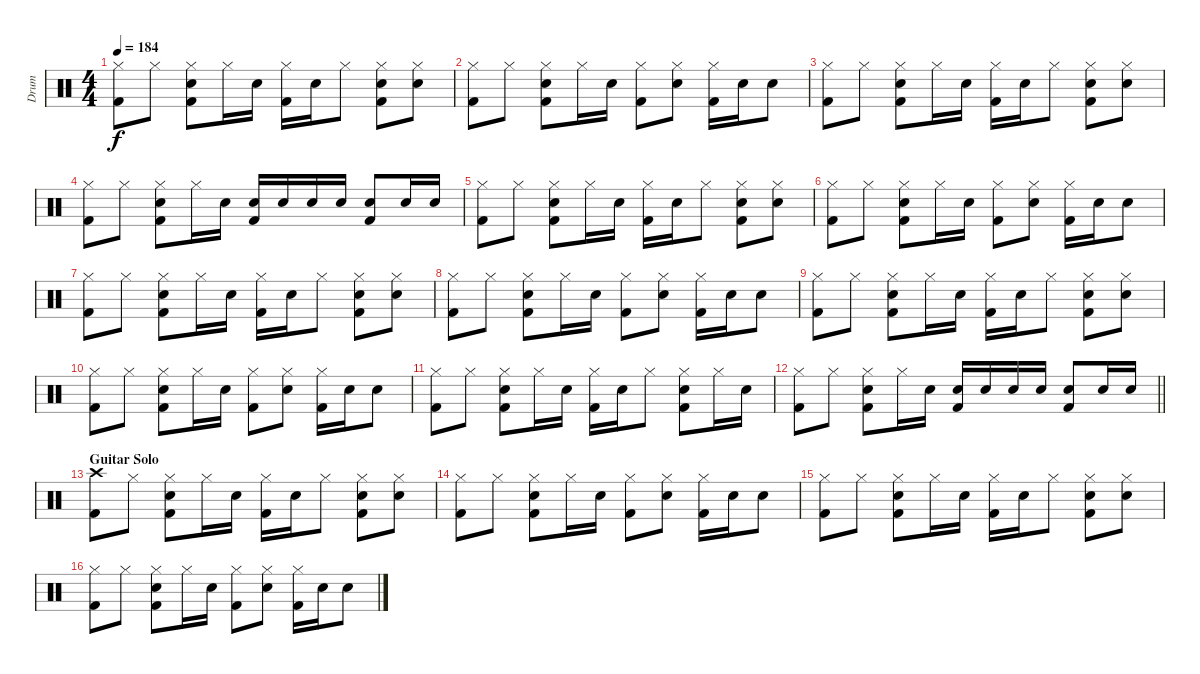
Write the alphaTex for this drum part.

\track ("Drum" "Drum") {instrument percussion}
\staff {score}
\articulation defaults
\ts (4 4)
\tempo 184
\clef neutral
\ks c
("Hi-Hat (closed)" "Kick (hit) 2").8{dy f} "Hi-Hat (closed)".8 ("Hi-Hat (closed)" "Electric Snare (hit)" "Kick (hit) 2").8 "Hi-Hat (closed)".16 "Electric Snare (hit)".16 ("Hi-Hat (closed)" "Kick (hit) 2").16 "Electric Snare (hit)".16 "Hi-Hat (closed)".8 ("Hi-Hat (closed)" "Electric Snare (hit)" "Kick (hit) 2").8 ("Hi-Hat (closed)" "Electric Snare (hit)").8 |
("Hi-Hat (closed)" "Kick (hit) 2").8 "Hi-Hat (closed)".8 ("Hi-Hat (closed)" "Electric Snare (hit)" "Kick (hit) 2").8 "Hi-Hat (closed)".16 "Electric Snare (hit)".16 ("Hi-Hat (closed)" "Kick (hit) 2").8 ("Hi-Hat (closed)" "Electric Snare (hit)").8 ("Hi-Hat (closed)" "Kick (hit) 2").16 "Electric Snare (hit)".16 "Electric Snare (hit)".8 |
("Hi-Hat (closed)" "Kick (hit) 2").8 "Hi-Hat (closed)".8 ("Hi-Hat (closed)" "Electric Snare (hit)" "Kick (hit) 2").8 "Hi-Hat (closed)".16 "Electric Snare (hit)".16 ("Hi-Hat (closed)" "Kick (hit) 2").16 "Electric Snare (hit)".16 "Hi-Hat (closed)".8 ("Hi-Hat (closed)" "Electric Snare (hit)" "Kick (hit) 2").8 ("Hi-Hat (closed)" "Electric Snare (hit)").8 |
("Hi-Hat (closed)" "Kick (hit) 2").8 "Hi-Hat (closed)".8 ("Hi-Hat (closed)" "Electric Snare (hit)" "Kick (hit) 2").8 "Hi-Hat (closed)".16 "Electric Snare (hit)".16 ("Electric Snare (hit)" "Kick (hit) 2").16 "Electric Snare (hit)".16 "Electric Snare (hit)".16 "Electric Snare (hit)".16 ("Electric Snare (hit)" "Kick (hit) 2").8 "Electric Snare (hit)".16 "Electric Snare (hit)".16 |
("Hi-Hat (closed)" "Kick (hit) 2").8 "Hi-Hat (closed)".8 ("Hi-Hat (closed)" "Electric Snare (hit)" "Kick (hit) 2").8 "Hi-Hat (closed)".16 "Electric Snare (hit)".16 ("Hi-Hat (closed)" "Kick (hit) 2").16 "Electric Snare (hit)".16 "Hi-Hat (closed)".8 ("Hi-Hat (closed)" "Electric Snare (hit)" "Kick (hit) 2").8 ("Hi-Hat (closed)" "Electric Snare (hit)").8 |
("Hi-Hat (closed)" "Kick (hit) 2").8 "Hi-Hat (closed)".8 ("Hi-Hat (closed)" "Electric Snare (hit)" "Kick (hit) 2").8 "Hi-Hat (closed)".16 "Electric Snare (hit)".16 ("Hi-Hat (closed)" "Kick (hit) 2").8 ("Hi-Hat (closed)" "Electric Snare (hit)").8 ("Hi-Hat (closed)" "Kick (hit) 2").16 "Electric Snare (hit)".16 "Electric Snare (hit)".8 |
("Hi-Hat (closed)" "Kick (hit) 2").8 "Hi-Hat (closed)".8 ("Hi-Hat (closed)" "Electric Snare (hit)" "Kick (hit) 2").8 "Hi-Hat (closed)".16 "Electric Snare (hit)".16 ("Hi-Hat (closed)" "Kick (hit) 2").16 "Electric Snare (hit)".16 "Hi-Hat (closed)".8 ("Hi-Hat (closed)" "Electric Snare (hit)" "Kick (hit) 2").8 ("Hi-Hat (closed)" "Electric Snare (hit)").8 |
("Hi-Hat (closed)" "Kick (hit) 2").8 "Hi-Hat (closed)".8 ("Hi-Hat (closed)" "Electric Snare (hit)" "Kick (hit) 2").8 "Hi-Hat (closed)".16 "Electric Snare (hit)".16 ("Hi-Hat (closed)" "Kick (hit) 2").8 ("Hi-Hat (closed)" "Electric Snare (hit)").8 ("Hi-Hat (closed)" "Kick (hit) 2").16 "Electric Snare (hit)".16 "Electric Snare (hit)".8 |
("Hi-Hat (closed)" "Kick (hit) 2").8 "Hi-Hat (closed)".8 ("Hi-Hat (closed)" "Electric Snare (hit)" "Kick (hit) 2").8 "Hi-Hat (closed)".16 "Electric Snare (hit)".16 ("Hi-Hat (closed)" "Kick (hit) 2").16 "Electric Snare (hit)".16 "Hi-Hat (closed)".8 ("Hi-Hat (closed)" "Electric Snare (hit)" "Kick (hit) 2").8 ("Hi-Hat (closed)" "Electric Snare (hit)").8 |
("Hi-Hat (closed)" "Kick (hit) 2").8 "Hi-Hat (closed)".8 ("Hi-Hat (closed)" "Electric Snare (hit)" "Kick (hit) 2").8 "Hi-Hat (closed)".16 "Electric Snare (hit)".16 ("Hi-Hat (closed)" "Kick (hit) 2").8 ("Hi-Hat (closed)" "Electric Snare (hit)").8 ("Hi-Hat (closed)" "Kick (hit) 2").16 "Electric Snare (hit)".16 "Electric Snare (hit)".8 |
("Hi-Hat (closed)" "Kick (hit) 2").8 "Hi-Hat (closed)".8 ("Hi-Hat (closed)" "Electric Snare (hit)" "Kick (hit) 2").8 "Hi-Hat (closed)".16 "Electric Snare (hit)".16 ("Hi-Hat (closed)" "Kick (hit) 2").16 "Electric Snare (hit)".16 "Hi-Hat (closed)".8 ("Hi-Hat (closed)" "Electric Snare (hit)" "Kick (hit) 2").8 "Hi-Hat (closed)".16 "Electric Snare (hit)".16 |
\barLineRight lightlight
("Hi-Hat (closed)" "Kick (hit) 2").8 "Hi-Hat (closed)".8 ("Hi-Hat (closed)" "Electric Snare (hit)" "Kick (hit) 2").8 "Hi-Hat (closed)".16 "Electric Snare (hit)".16 ("Electric Snare (hit)" "Kick (hit) 2").16 "Electric Snare (hit)".16 "Electric Snare (hit)".16 "Electric Snare (hit)".16 ("Electric Snare (hit)" "Kick (hit) 2").8 "Electric Snare (hit)".16 "Electric Snare (hit)".16 |
\section ("" "Guitar Solo")
("Crash high (hit)" "Kick (hit) 2").8 "Hi-Hat (closed)".8 ("Hi-Hat (closed)" "Electric Snare (hit)" "Kick (hit) 2").8 "Hi-Hat (closed)".16 "Electric Snare (hit)".16 ("Hi-Hat (closed)" "Kick (hit) 2").16 "Electric Snare (hit)".16 "Hi-Hat (closed)".8 ("Hi-Hat (closed)" "Electric Snare (hit)" "Kick (hit) 2").8 ("Hi-Hat (closed)" "Electric Snare (hit)").8 |
("Hi-Hat (closed)" "Kick (hit) 2").8 "Hi-Hat (closed)".8 ("Hi-Hat (closed)" "Electric Snare (hit)" "Kick (hit) 2").8 "Hi-Hat (closed)".16 "Electric Snare (hit)".16 ("Hi-Hat (closed)" "Kick (hit) 2").8 ("Hi-Hat (closed)" "Electric Snare (hit)").8 ("Hi-Hat (closed)" "Kick (hit) 2").16 "Electric Snare (hit)".16 "Electric Snare (hit)".8 |
("Hi-Hat (closed)" "Kick (hit) 2").8 "Hi-Hat (closed)".8 ("Hi-Hat (closed)" "Electric Snare (hit)" "Kick (hit) 2").8 "Hi-Hat (closed)".16 "Electric Snare (hit)".16 ("Hi-Hat (closed)" "Kick (hit) 2").16 "Electric Snare (hit)".16 "Hi-Hat (closed)".8 ("Hi-Hat (closed)" "Electric Snare (hit)" "Kick (hit) 2").8 ("Hi-Hat (closed)" "Electric Snare (hit)").8 |
("Hi-Hat (closed)" "Kick (hit) 2").8 "Hi-Hat (closed)".8 ("Hi-Hat (closed)" "Electric Snare (hit)" "Kick (hit) 2").8 "Hi-Hat (closed)".16 "Electric Snare (hit)".16 ("Hi-Hat (closed)" "Kick (hit) 2").8 ("Hi-Hat (closed)" "Electric Snare (hit)").8 ("Hi-Hat (closed)" "Kick (hit) 2").16 "Electric Snare (hit)".16 "Electric Snare (hit)".8
